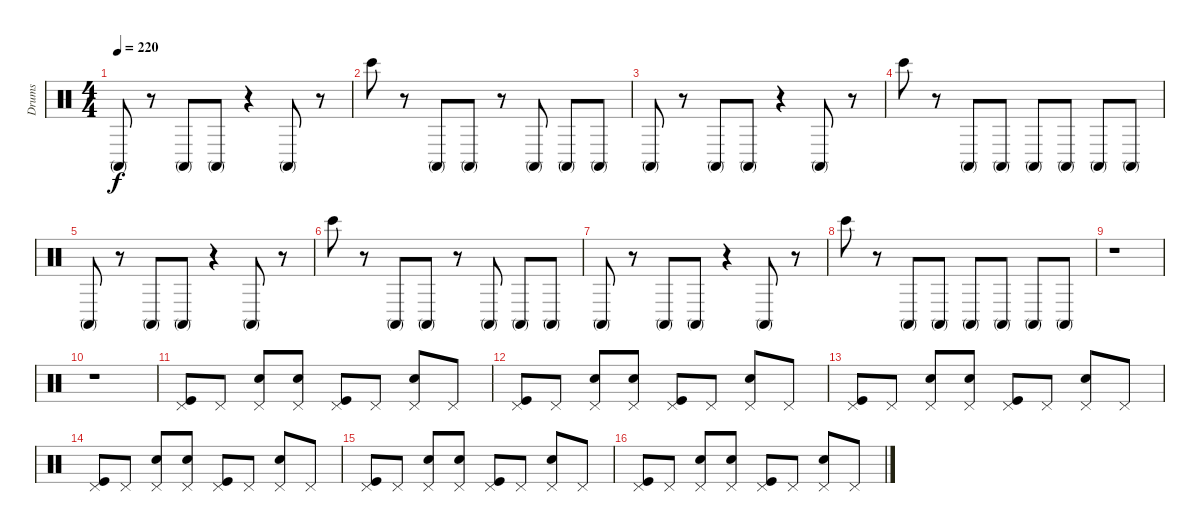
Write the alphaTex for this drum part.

\track ("Drums" "Drums") {instrument percussion}
\staff {score}
\articulation defaults
\ts (4 4)
\tempo 220
\clef neutral
\ks c "Conga high (mute)".8{dy f}
r.8 "Conga high (mute)".8 "Conga high (mute)".8 r.4 "Conga high (mute)".8 r.8 |
"Bongo High (hit)".8 r.8 "Conga high (mute)".8 "Conga high (mute)".8 r.8 "Conga high (mute)".8 "Conga high (mute)".8 "Conga high (mute)".8 |
"Conga high (mute)".8 r.8 "Conga high (mute)".8 "Conga high (mute)".8 r.4 "Conga high (mute)".8 r.8 |
"Bongo High (hit)".8 r.8 "Conga high (mute)".8 "Conga high (mute)".8 "Conga high (mute)".8 "Conga high (mute)".8 "Conga high (mute)".8 "Conga high (mute)".8 |
"Conga high (mute)".8 r.8 "Conga high (mute)".8 "Conga high (mute)".8 r.4 "Conga high (mute)".8 r.8 |
"Bongo High (hit)".8 r.8 "Conga high (mute)".8 "Conga high (mute)".8 r.8 "Conga high (mute)".8 "Conga high (mute)".8 "Conga high (mute)".8 |
"Conga high (mute)".8 r.8 "Conga high (mute)".8 "Conga high (mute)".8 r.4 "Conga high (mute)".8 r.8 |
"Bongo High (hit)".8 r.8 "Conga high (mute)".8 "Conga high (mute)".8 "Conga high (mute)".8 "Conga high (mute)".8 "Conga high (mute)".8 "Conga high (mute)".8 |
r.1 |
r.1 |
("Pedal Hi-Hat (hit)" "Kick (hit)").8 "Pedal Hi-Hat (hit)".8 ("Pedal Hi-Hat (hit)" "Electric Snare (hit)").8 ("Pedal Hi-Hat (hit)" "Electric Snare (hit)").8 ("Kick (hit)" "Pedal Hi-Hat (hit)").8 "Pedal Hi-Hat (hit)".8 ("Pedal Hi-Hat (hit)" "Electric Snare (hit)").8 "Pedal Hi-Hat (hit)".8 |
("Kick (hit)" "Pedal Hi-Hat (hit)").8 "Pedal Hi-Hat (hit)".8 ("Electric Snare (hit)" "Pedal Hi-Hat (hit)").8 ("Pedal Hi-Hat (hit)" "Electric Snare (hit)").8 ("Kick (hit)" "Pedal Hi-Hat (hit)").8 "Pedal Hi-Hat (hit)".8 ("Pedal Hi-Hat (hit)" "Electric Snare (hit)").8 "Pedal Hi-Hat (hit)".8 |
("Pedal Hi-Hat (hit)" "Kick (hit)").8 "Pedal Hi-Hat (hit)".8 ("Pedal Hi-Hat (hit)" "Electric Snare (hit)").8 ("Electric Snare (hit)" "Pedal Hi-Hat (hit)").8 ("Kick (hit)" "Pedal Hi-Hat (hit)").8 "Pedal Hi-Hat (hit)".8 ("Electric Snare (hit)" "Pedal Hi-Hat (hit)").8 "Pedal Hi-Hat (hit)".8 |
("Pedal Hi-Hat (hit)" "Kick (hit)").8 "Pedal Hi-Hat (hit)".8 ("Pedal Hi-Hat (hit)" "Electric Snare (hit)").8 ("Electric Snare (hit)" "Pedal Hi-Hat (hit)").8 ("Kick (hit)" "Pedal Hi-Hat (hit)").8 "Pedal Hi-Hat (hit)".8 ("Electric Snare (hit)" "Pedal Hi-Hat (hit)").8 "Pedal Hi-Hat (hit)".8 |
("Kick (hit)" "Pedal Hi-Hat (hit)").8 "Pedal Hi-Hat (hit)".8 ("Pedal Hi-Hat (hit)" "Electric Snare (hit)").8 ("Electric Snare (hit)" "Pedal Hi-Hat (hit)").8 ("Kick (hit)" "Pedal Hi-Hat (hit)").8 "Pedal Hi-Hat (hit)".8 ("Electric Snare (hit)" "Pedal Hi-Hat (hit)").8 "Pedal Hi-Hat (hit)".8 |
("Pedal Hi-Hat (hit)" "Kick (hit)").8 "Pedal Hi-Hat (hit)".8 ("Pedal Hi-Hat (hit)" "Electric Snare (hit)").8 ("Electric Snare (hit)" "Pedal Hi-Hat (hit)").8 ("Kick (hit)" "Pedal Hi-Hat (hit)").8 "Pedal Hi-Hat (hit)".8 ("Electric Snare (hit)" "Pedal Hi-Hat (hit)").8 "Pedal Hi-Hat (hit)".8
